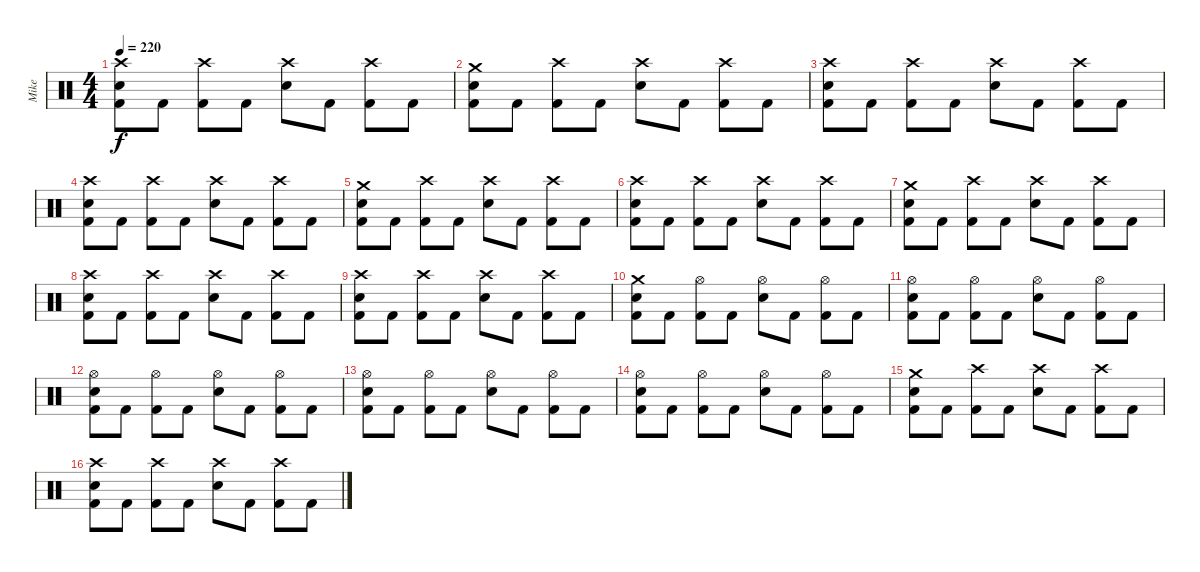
\track ("Mike" "Mike") {instrument percussion}
\staff {score}
\articulation defaults
\ts (4 4)
\tempo 220
\clef neutral
\ks c
("Crash high (hit)" "Electric Snare (hit)" "Kick (hit) 2").8{dy f} "Kick (hit) 2".8 ("Crash high (hit)" "Kick (hit) 2").8 "Kick (hit) 2".8 ("Crash high (hit)" "Electric Snare (hit)").8 "Kick (hit) 2".8 ("Crash high (hit)" "Kick (hit) 2").8 "Kick (hit) 2".8 |
("Crash medium (hit)" "Electric Snare (hit)" "Kick (hit) 2").8 "Kick (hit) 2".8 ("Crash high (hit)" "Kick (hit) 2").8 "Kick (hit) 2".8 ("Crash high (hit)" "Electric Snare (hit)").8 "Kick (hit) 2".8 ("Crash high (hit)" "Kick (hit) 2").8 "Kick (hit) 2".8 |
("Crash high (hit)" "Electric Snare (hit)" "Kick (hit) 2").8 "Kick (hit) 2".8 ("Crash high (hit)" "Kick (hit) 2").8 "Kick (hit) 2".8 ("Crash high (hit)" "Electric Snare (hit)").8 "Kick (hit) 2".8 ("Crash high (hit)" "Kick (hit) 2").8 "Kick (hit) 2".8 |
("Crash high (hit)" "Electric Snare (hit)" "Kick (hit) 2").8 "Kick (hit) 2".8 ("Crash high (hit)" "Kick (hit) 2").8 "Kick (hit) 2".8 ("Crash high (hit)" "Electric Snare (hit)").8 "Kick (hit) 2".8 ("Crash high (hit)" "Kick (hit) 2").8 "Kick (hit) 2".8 |
("Crash medium (hit)" "Electric Snare (hit)" "Kick (hit) 2").8 "Kick (hit) 2".8 ("Crash high (hit)" "Kick (hit) 2").8 "Kick (hit) 2".8 ("Crash high (hit)" "Electric Snare (hit)").8 "Kick (hit) 2".8 ("Crash high (hit)" "Kick (hit) 2").8 "Kick (hit) 2".8 |
("Crash high (hit)" "Electric Snare (hit)" "Kick (hit) 2").8 "Kick (hit) 2".8 ("Crash high (hit)" "Kick (hit) 2").8 "Kick (hit) 2".8 ("Crash high (hit)" "Electric Snare (hit)").8 "Kick (hit) 2".8 ("Crash high (hit)" "Kick (hit) 2").8 "Kick (hit) 2".8 |
("Crash medium (hit)" "Electric Snare (hit)" "Kick (hit) 2").8 "Kick (hit) 2".8 ("Crash high (hit)" "Kick (hit) 2").8 "Kick (hit) 2".8 ("Crash high (hit)" "Electric Snare (hit)").8 "Kick (hit) 2".8 ("Crash high (hit)" "Kick (hit) 2").8 "Kick (hit) 2".8 |
("Crash high (hit)" "Electric Snare (hit)" "Kick (hit) 2").8 "Kick (hit) 2".8 ("Crash high (hit)" "Kick (hit) 2").8 "Kick (hit) 2".8 ("Crash high (hit)" "Electric Snare (hit)").8 "Kick (hit) 2".8 ("Crash high (hit)" "Kick (hit) 2").8 "Kick (hit) 2".8 |
("Crash high (hit)" "Electric Snare (hit)" "Kick (hit) 2").8 "Kick (hit) 2".8 ("Crash high (hit)" "Kick (hit) 2").8 "Kick (hit) 2".8 ("Crash high (hit)" "Electric Snare (hit)").8 "Kick (hit) 2".8 ("Crash high (hit)" "Kick (hit) 2").8 "Kick (hit) 2".8 |
("Crash medium (hit)" "Electric Snare (hit)" "Kick (hit) 2").8 "Kick (hit) 2".8 ("Hi-Hat (open)" "Kick (hit) 2").8 "Kick (hit) 2".8 ("Hi-Hat (open)" "Electric Snare (hit)").8 "Kick (hit) 2".8 ("Hi-Hat (open)" "Kick (hit) 2").8 "Kick (hit) 2".8 |
("Hi-Hat (open)" "Electric Snare (hit)" "Kick (hit) 2").8 "Kick (hit) 2".8 ("Hi-Hat (open)" "Kick (hit) 2").8 "Kick (hit) 2".8 ("Hi-Hat (open)" "Electric Snare (hit)").8 "Kick (hit) 2".8 ("Hi-Hat (open)" "Kick (hit) 2").8 "Kick (hit) 2".8 |
("Hi-Hat (open)" "Electric Snare (hit)" "Kick (hit) 2").8 "Kick (hit) 2".8 ("Hi-Hat (open)" "Kick (hit) 2").8 "Kick (hit) 2".8 ("Hi-Hat (open)" "Electric Snare (hit)").8 "Kick (hit) 2".8 ("Hi-Hat (open)" "Kick (hit) 2").8 "Kick (hit) 2".8 |
("Hi-Hat (open)" "Electric Snare (hit)" "Kick (hit) 2").8 "Kick (hit) 2".8 ("Hi-Hat (open)" "Kick (hit) 2").8 "Kick (hit) 2".8 ("Hi-Hat (open)" "Electric Snare (hit)").8 "Kick (hit) 2".8 ("Hi-Hat (open)" "Kick (hit) 2").8 "Kick (hit) 2".8 |
("Hi-Hat (open)" "Electric Snare (hit)" "Kick (hit) 2").8 "Kick (hit) 2".8 ("Hi-Hat (open)" "Kick (hit) 2").8 "Kick (hit) 2".8 ("Hi-Hat (open)" "Electric Snare (hit)").8 "Kick (hit) 2".8 ("Hi-Hat (open)" "Kick (hit) 2").8 "Kick (hit) 2".8 |
("Crash medium (hit)" "Electric Snare (hit)" "Kick (hit) 2").8 "Kick (hit) 2".8 ("Crash high (hit)" "Kick (hit) 2").8 "Kick (hit) 2".8 ("Crash high (hit)" "Electric Snare (hit)").8 "Kick (hit) 2".8 ("Crash high (hit)" "Kick (hit) 2").8 "Kick (hit) 2".8 |
("Crash high (hit)" "Electric Snare (hit)" "Kick (hit) 2").8 "Kick (hit) 2".8 ("Crash high (hit)" "Kick (hit) 2").8 "Kick (hit) 2".8 ("Crash high (hit)" "Electric Snare (hit)").8 "Kick (hit) 2".8 ("Crash high (hit)" "Kick (hit) 2").8 "Kick (hit) 2".8
